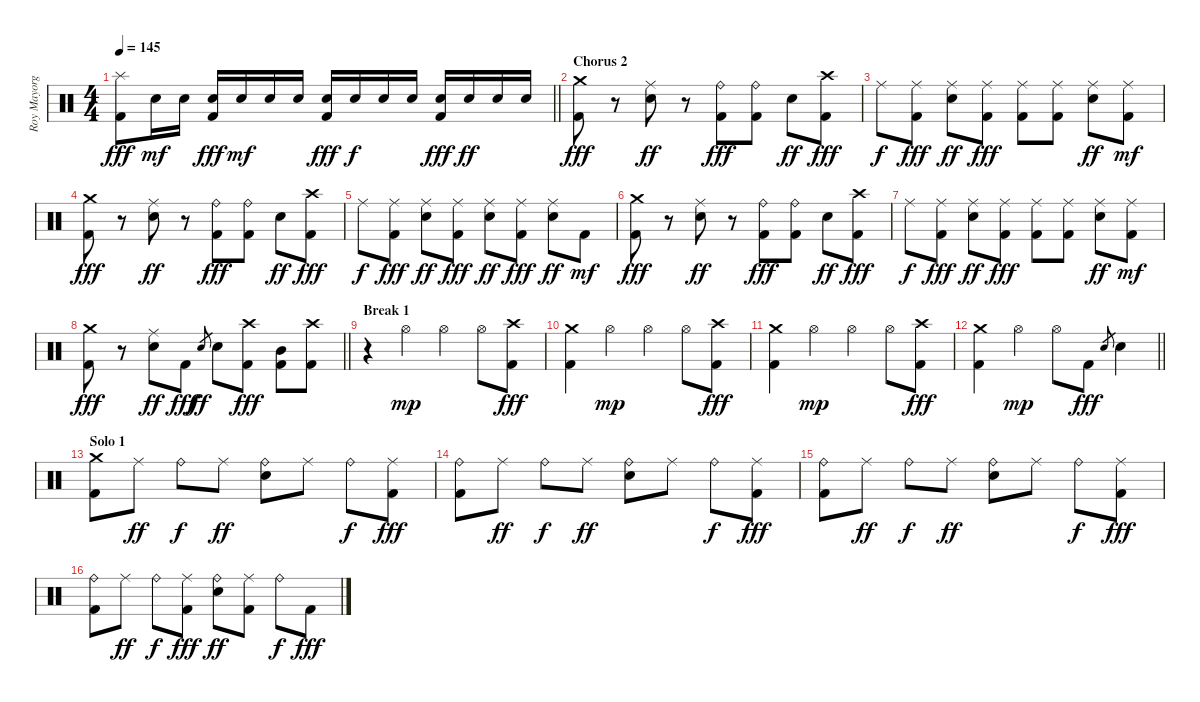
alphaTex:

\track ("Roy Mayorga" "Roy Mayorg") {instrument percussion}
\staff {score}
\articulation defaults
\ts (4 4)
\tempo 145
\clef neutral
\barLineRight lightlight
\ks c
("Splash (hit)" "Kick (hit) 2").8{dy fff} "Electric Snare (hit)".16{dy mf} "Electric Snare (hit)".16 ("Electric Snare (hit)" "Kick (hit) 2").16{dy fff} "Electric Snare (hit)".16{dy mf} "Electric Snare (hit)".16 "Electric Snare (hit)".16 ("Electric Snare (hit)" "Kick (hit) 2").16{dy fff} "Electric Snare (hit)".16{dy f} "Electric Snare (hit)".16 "Electric Snare (hit)".16 ("Electric Snare (hit)" "Kick (hit) 2").16{dy fff} "Electric Snare (hit)".16{dy ff} "Electric Snare (hit)".16 "Electric Snare (hit)".16 |
\section ("" "Chorus 2")
("Crash medium (hit)" "Kick (hit) 2").8{dy fff} r.8 ("Ride (middle)" "Electric Snare (hit)").8{dy ff} r.8 ("Ride (bell)" "Kick (hit) 2").8{dy fff} ("Ride (bell)" "Kick (hit) 2").8 "Electric Snare (hit)".8{dy ff} ("Crash high (hit)" "Kick (hit) 2").8{dy fff} |
"Ride (middle)".8{dy f} ("Ride (middle)" "Kick (hit) 2").8{dy fff} ("Ride (middle)" "Electric Snare (hit)").8{dy ff} ("Ride (middle)" "Kick (hit) 2").8{dy fff} ("Ride (middle)" "Kick (hit) 2").8 ("Ride (middle)" "Kick (hit) 2").8 ("Ride (middle)" "Electric Snare (hit)").8{dy ff} ("Ride (middle)" "Kick (hit) 2").8{dy mf} |
("Crash medium (hit)" "Kick (hit) 2").8{dy fff} r.8 ("Ride (middle)" "Electric Snare (hit)").8{dy ff} r.8 ("Ride (bell)" "Kick (hit) 2").8{dy fff} ("Ride (bell)" "Kick (hit) 2").8 "Electric Snare (hit)".8{dy ff} ("Crash high (hit)" "Kick (hit) 2").8{dy fff} |
"Ride (middle)".8{dy f} ("Ride (middle)" "Kick (hit) 2").8{dy fff} ("Ride (middle)" "Electric Snare (hit)").8{dy ff} ("Ride (middle)" "Kick (hit) 2").8{dy fff} ("Ride (middle)" "Electric Snare (hit)").8{dy ff} ("Ride (middle)" "Kick (hit) 2").8{dy fff} ("Ride (middle)" "Electric Snare (hit)").8{dy ff} "Kick (hit) 2".8{dy mf} |
("Crash medium (hit)" "Kick (hit) 2").8{dy fff} r.8 ("Ride (middle)" "Electric Snare (hit)").8{dy ff} r.8 ("Ride (bell)" "Kick (hit) 2").8{dy fff} ("Ride (bell)" "Kick (hit) 2").8 "Electric Snare (hit)".8{dy ff} ("Crash high (hit)" "Kick (hit) 2").8{dy fff} |
"Ride (middle)".8{dy f} ("Ride (middle)" "Kick (hit) 2").8{dy fff} ("Ride (middle)" "Electric Snare (hit)").8{dy ff} ("Ride (middle)" "Kick (hit) 2").8{dy fff} ("Ride (middle)" "Kick (hit) 2").8 ("Ride (middle)" "Kick (hit) 2").8 ("Ride (middle)" "Electric Snare (hit)").8{dy ff} ("Ride (middle)" "Kick (hit) 2").8{dy mf} |
\barLineRight lightlight
("Crash medium (hit)" "Kick (hit) 2").8{dy fff} r.8 ("Ride (middle)" "Electric Snare (hit)").8{dy ff} "Kick (hit) 2".8{dy fff} "Electric Snare (hit)".8{gr dy ff} "Electric Snare (hit)".8 ("Crash high (hit)" "Kick (hit) 2").8{dy fff} ("Mid Tom (hit)" "Kick (hit) 2").8 ("Crash high (hit)" "Kick (hit) 2").8 |
\section ("" "Break 1")
r.4 "Hi-Hat (open)".4{dy mp} "Hi-Hat (open)".4 "Hi-Hat (open)".8 ("Crash high (hit)" "Kick (hit) 2").8{dy fff} |
("Crash medium (hit)" "Kick (hit) 2").4 "Hi-Hat (open)".4{dy mp} "Hi-Hat (open)".4 "Hi-Hat (open)".8 ("Crash high (hit)" "Kick (hit) 2").8{dy fff} |
("Crash medium (hit)" "Kick (hit) 2").4 "Hi-Hat (open)".4{dy mp} "Hi-Hat (open)".4 "Hi-Hat (open)".8 ("Crash high (hit)" "Kick (hit) 2").8{dy fff} |
\barLineRight lightlight
("Crash medium (hit)" "Kick (hit) 2").4 "Hi-Hat (open)".4{dy mp} "Hi-Hat (open)".8 "Kick (hit) 2".8{dy fff} "Electric Snare (hit)".8{gr} "Electric Snare (hit)".4 |
\section ("" "Solo 1")
("Crash medium (hit)" "Kick (hit) 2").8 "Ride (middle)".8{dy ff} "Ride (bell)".8{dy f} "Ride (middle)".8{dy ff} ("Ride (bell)" "Electric Snare (hit)").8 "Ride (middle)".8 "Ride (bell)".8{dy f} ("Ride (middle)" "Kick (hit) 2").8{dy fff} |
("Ride (bell)" "Kick (hit) 2").8 "Ride (middle)".8{dy ff} "Ride (bell)".8{dy f} "Ride (middle)".8{dy ff} ("Ride (bell)" "Electric Snare (hit)").8 "Ride (middle)".8 "Ride (bell)".8{dy f} ("Ride (middle)" "Kick (hit) 2").8{dy fff} |
("Ride (bell)" "Kick (hit) 2").8 "Ride (middle)".8{dy ff} "Ride (bell)".8{dy f} "Ride (middle)".8{dy ff} ("Ride (bell)" "Electric Snare (hit)").8 "Ride (middle)".8 "Ride (bell)".8{dy f} ("Ride (middle)" "Kick (hit) 2").8{dy fff} |
("Ride (bell)" "Kick (hit) 2").8 "Ride (middle)".8{dy ff} "Ride (bell)".8{dy f} ("Ride (middle)" "Kick (hit) 2").8{dy fff} ("Ride (bell)" "Electric Snare (hit)").8{dy ff} ("Ride (middle)" "Kick (hit) 2").8 "Ride (bell)".8{dy f} "Kick (hit) 2".8{dy fff}
